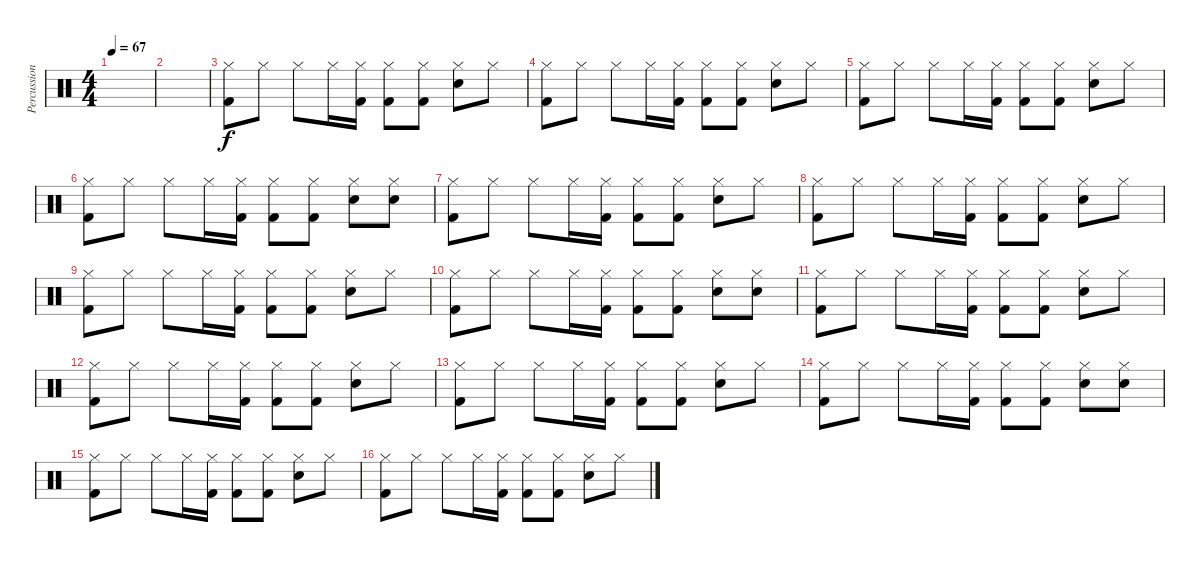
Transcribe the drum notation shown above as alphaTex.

\track ("Percussion" "Percussion") {instrument percussion}
\staff {score}
\articulation defaults
\ts (4 4)
\tempo 67
\clef neutral
\ks c
|
|
("Hi-Hat (closed)" "Kick (hit) 2").8 "Hi-Hat (closed)".8 "Hi-Hat (closed)".8 "Hi-Hat (closed)".16 ("Hi-Hat (closed)" "Kick (hit) 2").16 ("Hi-Hat (closed)" "Kick (hit) 2").8 ("Hi-Hat (closed)" "Kick (hit) 2").8 ("Hi-Hat (closed)" "Hand Clap (hit)").8 "Hi-Hat (closed)".8 |
("Hi-Hat (closed)" "Kick (hit) 2").8 "Hi-Hat (closed)".8 "Hi-Hat (closed)".8 "Hi-Hat (closed)".16 ("Hi-Hat (closed)" "Kick (hit) 2").16 ("Hi-Hat (closed)" "Kick (hit) 2").8 ("Hi-Hat (closed)" "Kick (hit) 2").8 ("Hi-Hat (closed)" "Hand Clap (hit)").8 "Hi-Hat (closed)".8 |
("Hi-Hat (closed)" "Kick (hit) 2").8 "Hi-Hat (closed)".8 "Hi-Hat (closed)".8 "Hi-Hat (closed)".16 ("Hi-Hat (closed)" "Kick (hit) 2").16 ("Hi-Hat (closed)" "Kick (hit) 2").8 ("Hi-Hat (closed)" "Kick (hit) 2").8 ("Hi-Hat (closed)" "Hand Clap (hit)").8 "Hi-Hat (closed)".8 |
("Hi-Hat (closed)" "Kick (hit) 2").8 "Hi-Hat (closed)".8 "Hi-Hat (closed)".8 "Hi-Hat (closed)".16 ("Hi-Hat (closed)" "Kick (hit) 2").16 ("Hi-Hat (closed)" "Kick (hit) 2").8 ("Hi-Hat (closed)" "Kick (hit) 2").8 ("Hi-Hat (closed)" "Hand Clap (hit)").8 ("Hi-Hat (closed)" "Hand Clap (hit)").8 |
("Hi-Hat (closed)" "Kick (hit) 2").8 "Hi-Hat (closed)".8 "Hi-Hat (closed)".8 "Hi-Hat (closed)".16 ("Hi-Hat (closed)" "Kick (hit) 2").16 ("Hi-Hat (closed)" "Kick (hit) 2").8 ("Hi-Hat (closed)" "Kick (hit) 2").8 ("Hi-Hat (closed)" "Hand Clap (hit)").8 "Hi-Hat (closed)".8 |
("Hi-Hat (closed)" "Kick (hit) 2").8 "Hi-Hat (closed)".8 "Hi-Hat (closed)".8 "Hi-Hat (closed)".16 ("Hi-Hat (closed)" "Kick (hit) 2").16 ("Hi-Hat (closed)" "Kick (hit) 2").8 ("Hi-Hat (closed)" "Kick (hit) 2").8 ("Hi-Hat (closed)" "Hand Clap (hit)").8 "Hi-Hat (closed)".8 |
("Hi-Hat (closed)" "Kick (hit) 2").8 "Hi-Hat (closed)".8 "Hi-Hat (closed)".8 "Hi-Hat (closed)".16 ("Hi-Hat (closed)" "Kick (hit) 2").16 ("Hi-Hat (closed)" "Kick (hit) 2").8 ("Hi-Hat (closed)" "Kick (hit) 2").8 ("Hi-Hat (closed)" "Hand Clap (hit)").8 "Hi-Hat (closed)".8 |
("Hi-Hat (closed)" "Kick (hit) 2").8 "Hi-Hat (closed)".8 "Hi-Hat (closed)".8 "Hi-Hat (closed)".16 ("Hi-Hat (closed)" "Kick (hit) 2").16 ("Hi-Hat (closed)" "Kick (hit) 2").8 ("Hi-Hat (closed)" "Kick (hit) 2").8 ("Hi-Hat (closed)" "Hand Clap (hit)").8 ("Hi-Hat (closed)" "Hand Clap (hit)").8 |
("Hi-Hat (closed)" "Kick (hit) 2").8 "Hi-Hat (closed)".8 "Hi-Hat (closed)".8 "Hi-Hat (closed)".16 ("Hi-Hat (closed)" "Kick (hit) 2").16 ("Hi-Hat (closed)" "Kick (hit) 2").8 ("Hi-Hat (closed)" "Kick (hit) 2").8 ("Hi-Hat (closed)" "Hand Clap (hit)").8 "Hi-Hat (closed)".8 |
("Hi-Hat (closed)" "Kick (hit) 2").8 "Hi-Hat (closed)".8 "Hi-Hat (closed)".8 "Hi-Hat (closed)".16 ("Hi-Hat (closed)" "Kick (hit) 2").16 ("Hi-Hat (closed)" "Kick (hit) 2").8 ("Hi-Hat (closed)" "Kick (hit) 2").8 ("Hi-Hat (closed)" "Hand Clap (hit)").8 "Hi-Hat (closed)".8 |
("Hi-Hat (closed)" "Kick (hit) 2").8 "Hi-Hat (closed)".8 "Hi-Hat (closed)".8 "Hi-Hat (closed)".16 ("Hi-Hat (closed)" "Kick (hit) 2").16 ("Hi-Hat (closed)" "Kick (hit) 2").8 ("Hi-Hat (closed)" "Kick (hit) 2").8 ("Hi-Hat (closed)" "Hand Clap (hit)").8 "Hi-Hat (closed)".8 |
("Hi-Hat (closed)" "Kick (hit) 2").8 "Hi-Hat (closed)".8 "Hi-Hat (closed)".8 "Hi-Hat (closed)".16 ("Hi-Hat (closed)" "Kick (hit) 2").16 ("Hi-Hat (closed)" "Kick (hit) 2").8 ("Hi-Hat (closed)" "Kick (hit) 2").8 ("Hi-Hat (closed)" "Hand Clap (hit)").8 ("Hi-Hat (closed)" "Hand Clap (hit)").8 |
("Hi-Hat (closed)" "Kick (hit) 2").8 "Hi-Hat (closed)".8 "Hi-Hat (closed)".8 "Hi-Hat (closed)".16 ("Hi-Hat (closed)" "Kick (hit) 2").16 ("Hi-Hat (closed)" "Kick (hit) 2").8 ("Hi-Hat (closed)" "Kick (hit) 2").8 ("Hi-Hat (closed)" "Hand Clap (hit)").8 "Hi-Hat (closed)".8 |
("Hi-Hat (closed)" "Kick (hit) 2").8 "Hi-Hat (closed)".8 "Hi-Hat (closed)".8 "Hi-Hat (closed)".16 ("Hi-Hat (closed)" "Kick (hit) 2").16 ("Hi-Hat (closed)" "Kick (hit) 2").8 ("Hi-Hat (closed)" "Kick (hit) 2").8 ("Hi-Hat (closed)" "Hand Clap (hit)").8 "Hi-Hat (closed)".8
